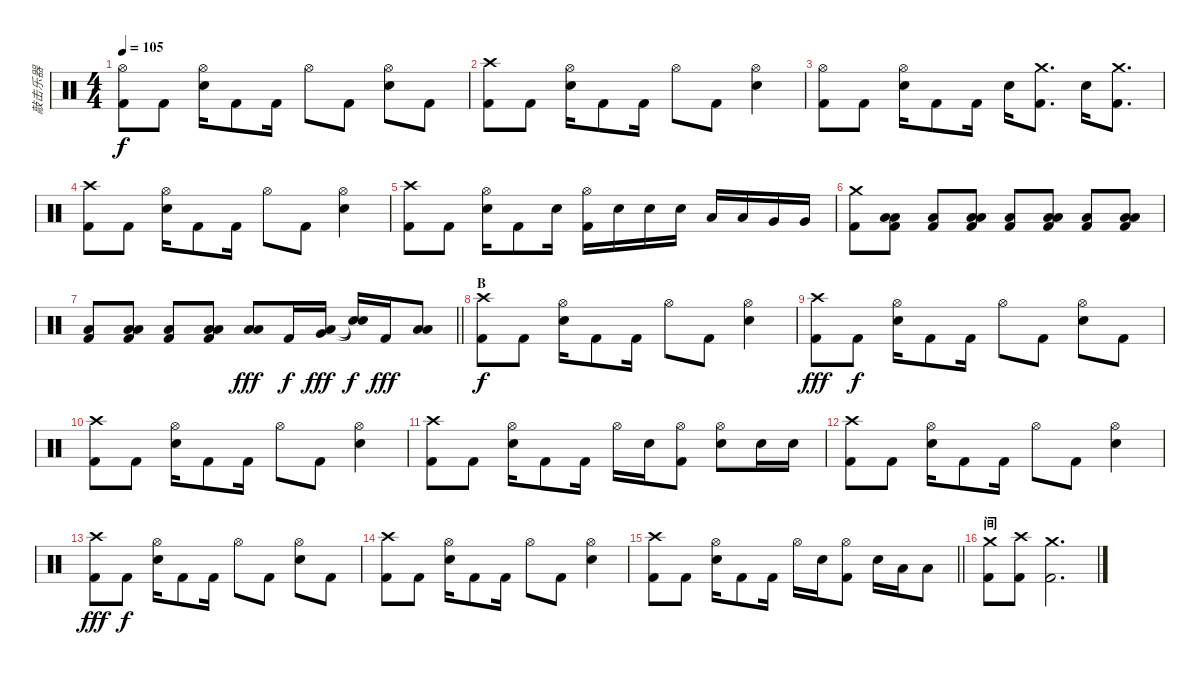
\track ("敲击乐器" "敲击乐器") {instrument percussion}
\staff {score}
\articulation defaults
\ts (4 4)
\tempo 105
\clef neutral
\ks c
("Hi-Hat (open)" "Kick (hit) 2").8{dy f} "Kick (hit) 2".8 ("Hi-Hat (open)" "Electric Snare (hit)").16 "Kick (hit) 2".8 "Kick (hit) 2".16 "Hi-Hat (open)".8 "Kick (hit) 2".8 ("Hi-Hat (open)" "Electric Snare (hit)").8 "Kick (hit) 2".8 |
("Crash high (hit)" "Kick (hit) 2").8 "Kick (hit) 2".8 ("Hi-Hat (open)" "Electric Snare (hit)").16 "Kick (hit) 2".8 "Kick (hit) 2".16 "Hi-Hat (open)".8 "Kick (hit) 2".8 ("Hi-Hat (open)" "Electric Snare (hit)").4 |
("Hi-Hat (open)" "Kick (hit) 2").8 "Kick (hit) 2".8 ("Hi-Hat (open)" "Electric Snare (hit)").16 "Kick (hit) 2".8 "Kick (hit) 2".16 "Electric Snare (hit)".16 ("Crash medium (hit)" "Kick (hit) 2").8{d} "Electric Snare (hit)".16 ("Crash medium (hit)" "Kick (hit) 2").8{d} |
("Crash high (hit)" "Kick (hit) 2").8 "Kick (hit) 2".8 ("Hi-Hat (open)" "Electric Snare (hit)").16 "Kick (hit) 2".8 "Kick (hit) 2".16 "Hi-Hat (open)".8 "Kick (hit) 2".8 ("Hi-Hat (open)" "Electric Snare (hit)").4 |
("Crash high (hit)" "Kick (hit) 2").8 "Kick (hit) 2".8 ("Hi-Hat (open)" "Electric Snare (hit)").16 "Kick (hit) 2".8 "Electric Snare (hit)".16 ("Hi-Hat (open)" "Kick (hit) 2").16 "Electric Snare (hit)".16 "Electric Snare (hit)".16 "Electric Snare (hit)".16 "Low Tom (hit)".16 "Low Tom (hit)".16 "Very Low Tom (hit)".16 "Very Low Tom (hit)".16 |
("Crash medium (hit)" "Kick (hit) 2").8 ("Low Tom (hit)" "Low Floor Tom (hit)" "Kick (hit) 2").8 ("Low Floor Tom (hit)" "Kick (hit) 2").8 ("Low Tom (hit)" "Low Floor Tom (hit)" "Kick (hit) 2").8 ("Low Floor Tom (hit)" "Kick (hit) 2").8 ("Low Tom (hit)" "Low Floor Tom (hit)" "Kick (hit) 2").8 ("Low Floor Tom (hit)" "Kick (hit) 2").8 ("Low Tom (hit)" "Low Floor Tom (hit)" "Kick (hit) 2").8 |
\barLineRight lightlight
("Low Floor Tom (hit)" "Kick (hit) 2").8 ("Low Tom (hit)" "Low Floor Tom (hit)" "Kick (hit) 2").8 ("Low Floor Tom (hit)" "Kick (hit) 2").8 ("Low Tom (hit)" "Low Floor Tom (hit)" "Kick (hit) 2").8 ("Low Tom (hit)" "Low Floor Tom (hit)").8{dy fff} "Kick (hit) 2".16{dy f} ("Very Low Tom (hit)" "Low Floor Tom (hit)").16{dy fff} ("Snare (hit)"{t} "Snare (hit)"{t}).16{dy f} "Kick (hit) 2".16{dy fff} ("Low Floor Tom (hit)" "Low Floor Tom (hit)").8 |
\section ("" "B")
("Crash high (hit)" "Kick (hit) 2").8{dy f} "Kick (hit) 2".8 ("Hi-Hat (open)" "Electric Snare (hit)").16 "Kick (hit) 2".8 "Kick (hit) 2".16 "Hi-Hat (open)".8 "Kick (hit) 2".8 ("Hi-Hat (open)" "Electric Snare (hit)").4 |
("Crash high (hit)" "Kick (hit) 2").8{dy fff} "Kick (hit) 2".8{dy f} ("Hi-Hat (open)" "Electric Snare (hit)").16 "Kick (hit) 2".8 "Kick (hit) 2".16 "Hi-Hat (open)".8 "Kick (hit) 2".8 ("Hi-Hat (open)" "Electric Snare (hit)").8 "Kick (hit) 2".8 |
("Crash high (hit)" "Kick (hit) 2").8 "Kick (hit) 2".8 ("Hi-Hat (open)" "Electric Snare (hit)").16 "Kick (hit) 2".8 "Kick (hit) 2".16 "Hi-Hat (open)".8 "Kick (hit) 2".8 ("Hi-Hat (open)" "Electric Snare (hit)").4 |
("Crash high (hit)" "Kick (hit) 2").8 "Kick (hit) 2".8 ("Hi-Hat (open)" "Electric Snare (hit)").16 "Kick (hit) 2".8 "Kick (hit) 2".16 "Hi-Hat (open)".16 "Electric Snare (hit)".16 ("Hi-Hat (open)" "Kick (hit) 2").8 ("Hi-Hat (open)" "Electric Snare (hit)").8 "Electric Snare (hit)".16 "Electric Snare (hit)".16 |
("Crash high (hit)" "Kick (hit) 2").8 "Kick (hit) 2".8 ("Hi-Hat (open)" "Electric Snare (hit)").16 "Kick (hit) 2".8 "Kick (hit) 2".16 "Hi-Hat (open)".8 "Kick (hit) 2".8 ("Hi-Hat (open)" "Electric Snare (hit)").4 |
("Crash high (hit)" "Kick (hit) 2").8{dy fff} "Kick (hit) 2".8{dy f} ("Hi-Hat (open)" "Electric Snare (hit)").16 "Kick (hit) 2".8 "Kick (hit) 2".16 "Hi-Hat (open)".8 "Kick (hit) 2".8 ("Hi-Hat (open)" "Electric Snare (hit)").8 "Kick (hit) 2".8 |
("Crash high (hit)" "Kick (hit) 2").8 "Kick (hit) 2".8 ("Hi-Hat (open)" "Electric Snare (hit)").16 "Kick (hit) 2".8 "Kick (hit) 2".16 "Hi-Hat (open)".8 "Kick (hit) 2".8 ("Hi-Hat (open)" "Electric Snare (hit)").4 |
\barLineRight lightlight
("Crash high (hit)" "Kick (hit) 2").8 "Kick (hit) 2".8 ("Hi-Hat (open)" "Electric Snare (hit)").16 "Kick (hit) 2".8 "Kick (hit) 2".16 "Hi-Hat (open)".16 "Electric Snare (hit)".16 ("Hi-Hat (open)" "Kick (hit) 2").8 "Electric Snare (hit)".16 "Low Tom (hit)".16 "Low Floor Tom (hit)".8 |
\section ("" "间")
("Crash medium (hit)" "Kick (hit) 2").8 ("Crash high (hit)" "Kick (hit) 2").8 ("Crash medium (hit)" "Kick (hit) 2").2{d}
